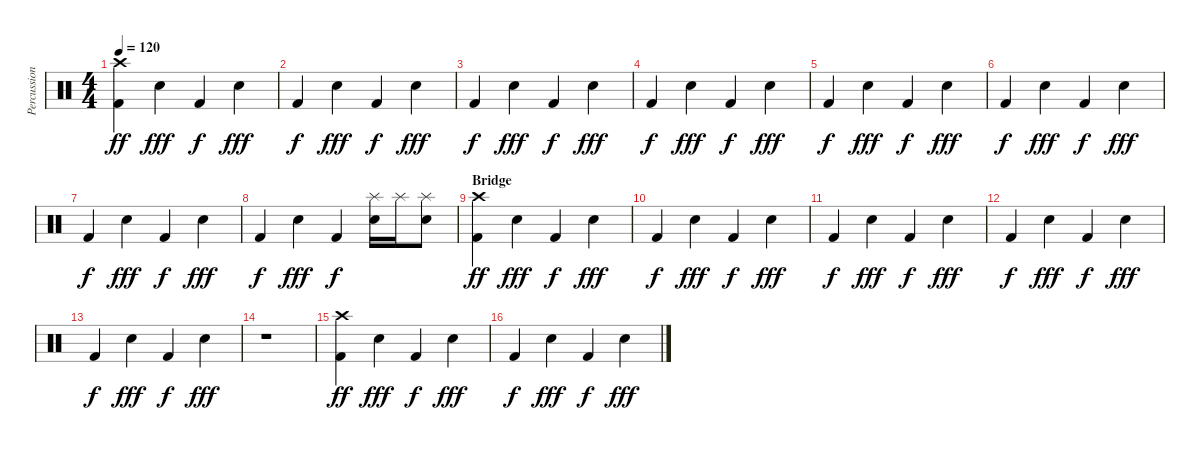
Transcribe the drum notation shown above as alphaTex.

\track ("Percussion" "Percussion") {instrument percussion}
\staff {score}
\articulation defaults
\ts (4 4)
\tempo 120
\clef neutral
\ks c
("Crash high (hit)" "Kick (hit) 2").4{dy ff} "Electric Snare (hit)".4{dy fff} "Kick (hit) 2".4{dy f} "Electric Snare (hit)".4{dy fff} |
"Kick (hit) 2".4{dy f} "Electric Snare (hit)".4{dy fff} "Kick (hit) 2".4{dy f} "Electric Snare (hit)".4{dy fff} |
"Kick (hit) 2".4{dy f} "Electric Snare (hit)".4{dy fff} "Kick (hit) 2".4{dy f} "Electric Snare (hit)".4{dy fff} |
"Kick (hit) 2".4{dy f} "Electric Snare (hit)".4{dy fff} "Kick (hit) 2".4{dy f} "Electric Snare (hit)".4{dy fff} |
"Kick (hit) 2".4{dy f} "Electric Snare (hit)".4{dy fff} "Kick (hit) 2".4{dy f} "Electric Snare (hit)".4{dy fff} |
"Kick (hit) 2".4{dy f} "Electric Snare (hit)".4{dy fff} "Kick (hit) 2".4{dy f} "Electric Snare (hit)".4{dy fff} |
"Kick (hit) 2".4{dy f} "Electric Snare (hit)".4{dy fff} "Kick (hit) 2".4{dy f} "Electric Snare (hit)".4{dy fff} |
"Kick (hit) 2".4{dy f} "Electric Snare (hit)".4{dy fff} "Kick (hit) 2".4{dy f} ("Splash (hit)" "Electric Snare (hit)").16 "Splash (hit)".16 ("Splash (hit)" "Electric Snare (hit)").8 |
\section ("" "Bridge")
("Crash high (hit)" "Kick (hit) 2").4{dy ff} "Electric Snare (hit)".4{dy fff} "Kick (hit) 2".4{dy f} "Electric Snare (hit)".4{dy fff} |
"Kick (hit) 2".4{dy f} "Electric Snare (hit)".4{dy fff} "Kick (hit) 2".4{dy f} "Electric Snare (hit)".4{dy fff} |
"Kick (hit) 2".4{dy f} "Electric Snare (hit)".4{dy fff} "Kick (hit) 2".4{dy f} "Electric Snare (hit)".4{dy fff} |
"Kick (hit) 2".4{dy f} "Electric Snare (hit)".4{dy fff} "Kick (hit) 2".4{dy f} "Electric Snare (hit)".4{dy fff} |
"Kick (hit) 2".4{dy f} "Electric Snare (hit)".4{dy fff} "Kick (hit) 2".4{dy f} "Electric Snare (hit)".4{dy fff} |
r.1 |
("Crash high (hit)" "Kick (hit) 2").4{dy ff} "Electric Snare (hit)".4{dy fff} "Kick (hit) 2".4{dy f} "Electric Snare (hit)".4{dy fff} |
"Kick (hit) 2".4{dy f} "Electric Snare (hit)".4{dy fff} "Kick (hit) 2".4{dy f} "Electric Snare (hit)".4{dy fff}
